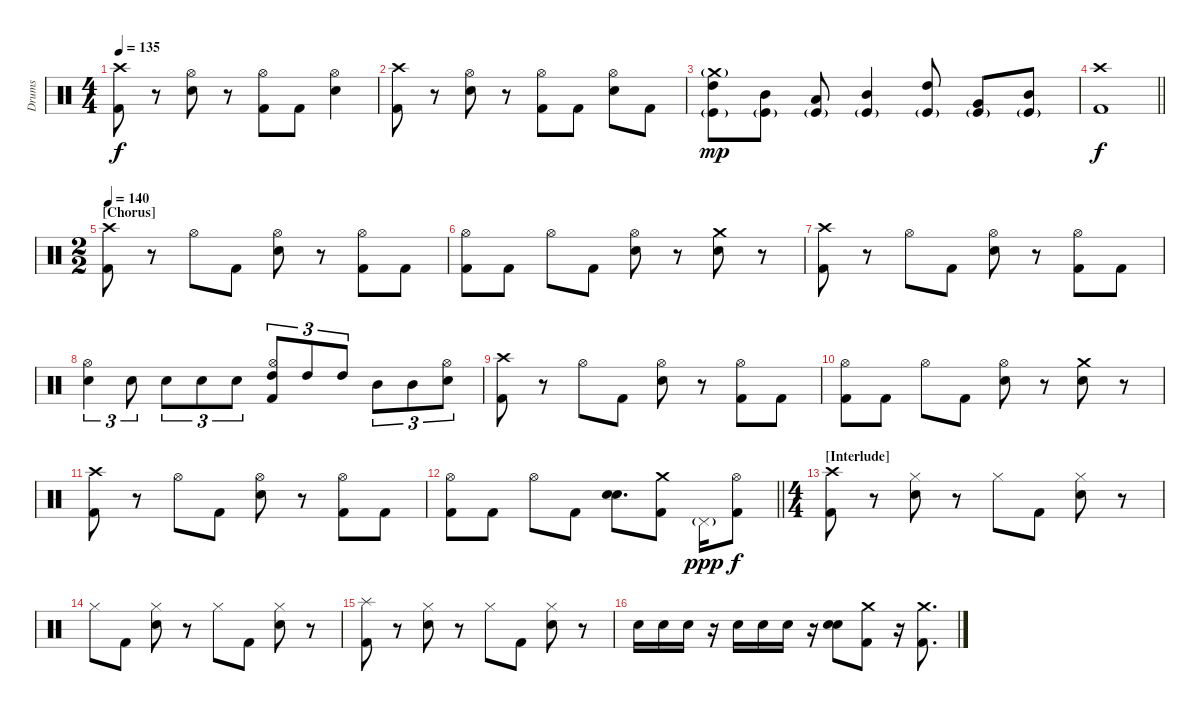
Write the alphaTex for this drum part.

\track ("Drums" "Drums") {instrument percussion}
\staff {score}
\articulation defaults
\ts (4 4)
\tempo 135
\clef neutral
\ks c
("Crash high (hit)" "Kick (hit) 2").8{dy f} r.8 ("Hi-Hat (open)" "Snare (hit) 2").8 r.8 ("Hi-Hat (open)" "Kick (hit) 2").8 "Kick (hit) 2".8 ("Hi-Hat (open)" "Snare (hit) 2").4 |
("Crash high (hit)" "Kick (hit) 2").8 r.8 ("Hi-Hat (open)" "Snare (hit) 2").8 r.8 ("Hi-Hat (open)" "Kick (hit) 2").8 "Kick (hit) 2".8 ("Hi-Hat (open)" "Snare (hit) 2").8 "Kick (hit) 2".8 |
("Crash medium (hit)"{g} "High Tom (hit)" "Kick (hit)"{g}).8{dy mp} ("Mid Tom (hit)" "Kick (hit)"{g}).8 ("Low Tom (hit)" "Kick (hit)"{g}).8 ("Mid Tom (hit)" "Kick (hit)"{g}).4 ("High Tom (hit)" "Kick (hit)"{g}).8 ("Very Low Tom (hit)" "Kick (hit)"{g}).8 ("Mid Tom (hit)" "Kick (hit)"{g}).8 |
\barLineRight lightlight
("Crash high (hit)" "Kick (hit) 2").1{dy f} |
\ts (2 2)
\section ("" "[Chorus]")
\tempo 140
("Crash high (hit)" "Kick (hit) 2").8 r.8 "Hi-Hat (open)".8 "Kick (hit) 2".8 ("Hi-Hat (open)" "Snare (hit) 2").8 r.8 ("Hi-Hat (open)" "Kick (hit) 2").8 "Kick (hit) 2".8 |
("Hi-Hat (open)" "Kick (hit) 2").8 "Kick (hit) 2".8 "Hi-Hat (open)".8 "Kick (hit) 2".8 ("Hi-Hat (open)" "Snare (hit) 2").8 r.8 ("Crash medium (hit)" "Snare (hit) 2").8 r.8 |
("Crash high (hit)" "Kick (hit) 2").8 r.8 "Hi-Hat (open)".8 "Kick (hit) 2".8 ("Hi-Hat (open)" "Snare (hit) 2").8 r.8 ("Hi-Hat (open)" "Kick (hit) 2").8 "Kick (hit) 2".8 |
("Hi-Hat (open)" "Snare (hit) 2").4{tu (3 2)} "Snare (hit) 2".8{tu (3 2)} "Snare (hit) 2".8{tu (3 2)} "Snare (hit) 2".8{tu (3 2)} "Snare (hit) 2".8{tu (3 2)} ("Hi-Hat (open)" "High Tom (hit)" "Kick (hit) 2").8{tu (3 2)} "High Tom (hit)".8{tu (3 2)} "High Tom (hit)".8{tu (3 2)} "Mid Tom (hit)".8{tu (3 2)} "Mid Tom (hit)".8{tu (3 2)} ("Hi-Hat (open)" "Snare (hit) 2").8{tu (3 2)} |
("Crash high (hit)" "Kick (hit) 2").8 r.8 "Hi-Hat (open)".8 "Kick (hit) 2".8 ("Hi-Hat (open)" "Snare (hit) 2").8 r.8 ("Hi-Hat (open)" "Kick (hit) 2").8 "Kick (hit) 2".8 |
("Hi-Hat (open)" "Kick (hit) 2").8 "Kick (hit) 2".8 "Hi-Hat (open)".8 "Kick (hit) 2".8 ("Hi-Hat (open)" "Snare (hit) 2").8 r.8 ("Crash medium (hit)" "Snare (hit) 2").8 r.8 |
("Crash high (hit)" "Kick (hit) 2").8 r.8 "Hi-Hat (open)".8 "Kick (hit) 2".8 ("Hi-Hat (open)" "Snare (hit) 2").8 r.8 ("Hi-Hat (open)" "Kick (hit) 2").8 "Kick (hit) 2".8 |
\barLineRight lightlight
("Hi-Hat (open)" "Kick (hit) 2").8 "Kick (hit) 2".8 "Hi-Hat (open)".8 "Kick (hit) 2".8 ("Snare (hit) 2" "Snare (hit) 2").8{d bd 240} ("Crash medium (hit)" "Kick (hit) 2").8 "Pedal Hi-Hat (hit)"{g}.16{dy ppp} ("Hi-Hat (open)" "Kick (hit) 2").8{dy f} |
\ts (4 4)
\section ("" "[Interlude]")
("Crash high (hit)" "Kick (hit) 2").8 r.8 ("Hi-Hat (closed)" "Snare (hit) 2").8 r.8 "Hi-Hat (closed)".8 "Kick (hit) 2".8 ("Hi-Hat (closed)" "Snare (hit) 2").8 r.8 |
"Hi-Hat (closed)".8 "Kick (hit) 2".8 ("Hi-Hat (closed)" "Snare (hit) 2").8 r.8 "Hi-Hat (closed)".8 "Kick (hit) 2".8 ("Hi-Hat (closed)" "Snare (hit) 2").8 r.8 |
("Splash (hit)" "Kick (hit) 2").8 r.8 ("Hi-Hat (closed)" "Snare (hit) 2").8 r.8 "Hi-Hat (closed)".8 "Kick (hit) 2".8 ("Hi-Hat (closed)" "Snare (hit) 2").8 r.8 |
"Snare (hit) 2".16 "Snare (hit) 2".16 "Snare (hit) 2".16 r.16 "Snare (hit) 2".16 "Snare (hit) 2".16 "Snare (hit) 2".16 r.16 ("Snare (hit) 2" "Snare (hit) 2").8{bd 480} ("Crash medium (hit)" "Kick (hit) 2").8 r.16 ("Crash medium (hit)" "Kick (hit) 2").8{d}
